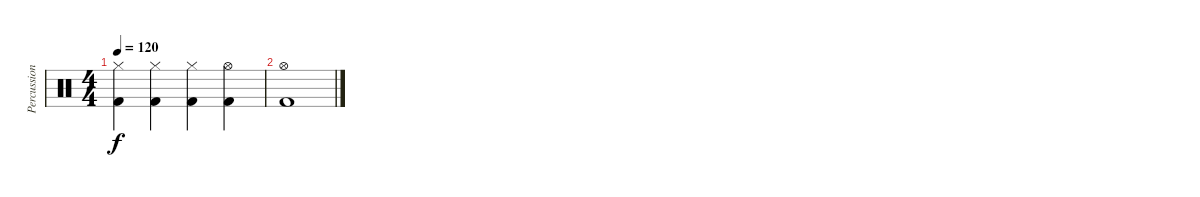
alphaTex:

\track ("Percussions" "Percussion") {instrument percussion}
\staff {score}
\articulation defaults
\ts (4 4)
\tempo 120
\clef neutral
\ks c
("Hi-Hat (closed)" "Kick (hit) 2").4{dy f} ("Hi-Hat (closed)" "Kick (hit) 2").4 ("Hi-Hat (closed)" "Kick (hit) 2").4 ("Hi-Hat (open)" "Kick (hit) 2").4 |
("Hi-Hat (open)" "Kick (hit) 2").1
